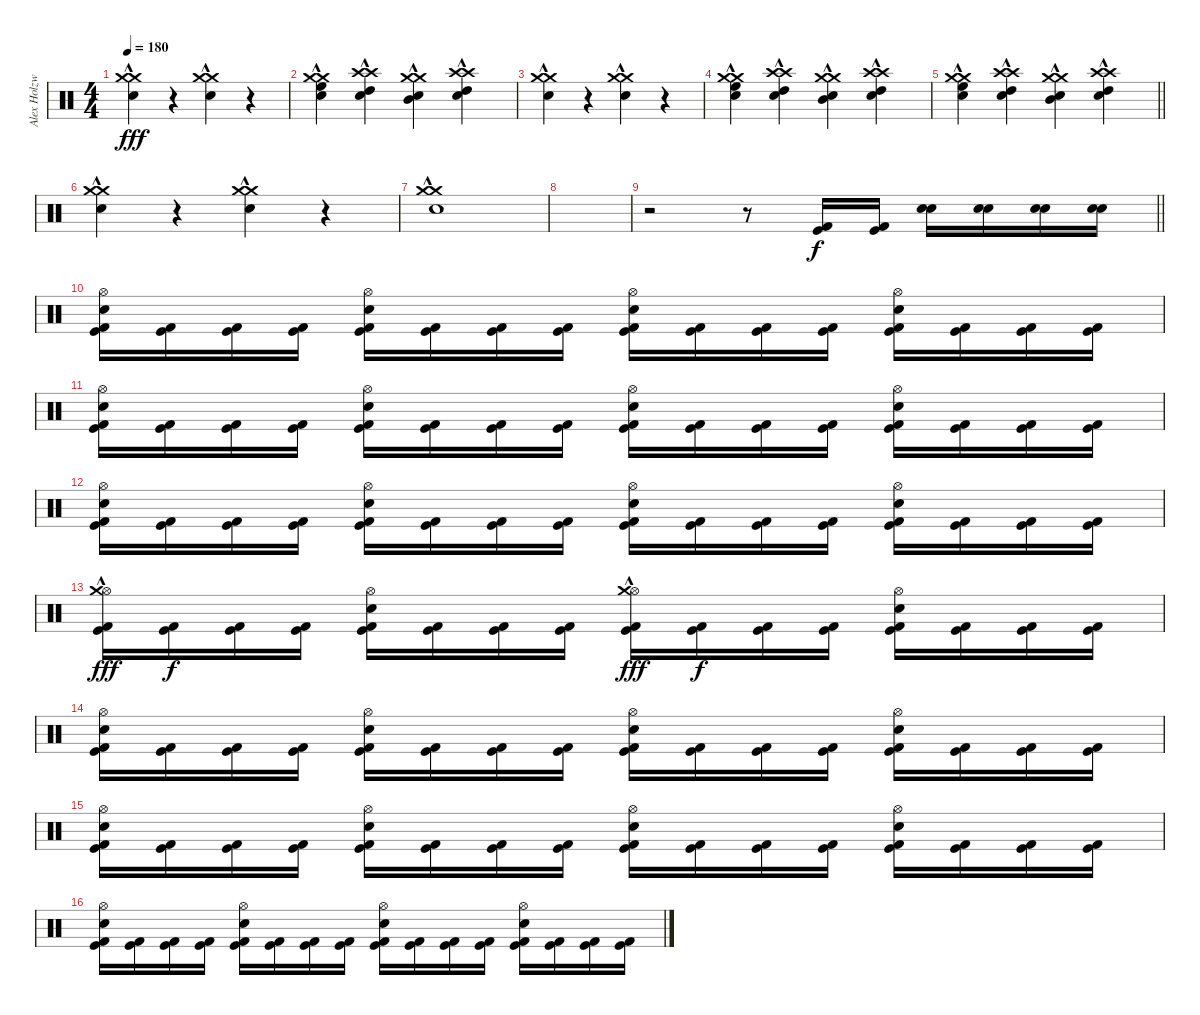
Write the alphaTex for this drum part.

\track ("Alex Holzwarth" "Alex Holzw") {instrument percussion}
\staff {score}
\articulation defaults
\ts (4 4)
\tempo 180
\clef neutral
\ks c
("Crash medium (hit)"{hac} "Snare (hit) 2" "Crash medium (hit)"{hac}).4{dy fff volume 16} r.4{volume 0} ("Crash medium (hit)"{hac} "Snare (hit) 2" "Crash medium (hit)"{hac}).4{volume 16} r.4{volume 0} |
("High Floor Tom (hit)"{hac} "Crash medium (hit)"{hac} "Snare (hit) 2" "Crash medium (hit)"{hac}).4{volume 16} ("High Tom (hit)"{hac} "Crash high (hit)"{hac} "Snare (hit) 2" "Crash high (hit)"{hac}).4{volume 16} ("Mid Tom (hit)"{hac} "Crash medium (hit)"{hac} "Snare (hit) 2" "Crash medium (hit)"{hac}).4{volume 16} ("High Tom (hit)"{hac} "Crash high (hit)"{hac} "Snare (hit) 2" "Crash high (hit)"{hac}).4{volume 16} |
("Crash medium (hit)"{hac} "Snare (hit) 2" "Crash medium (hit)"{hac}).4{volume 16} r.4{volume 0} ("Crash medium (hit)"{hac} "Snare (hit) 2" "Crash medium (hit)"{hac}).4{volume 16} r.4{volume 0} |
("High Floor Tom (hit)"{hac} "Crash medium (hit)"{hac} "Snare (hit) 2" "Crash medium (hit)"{hac}).4{volume 16} ("High Tom (hit)"{hac} "Crash high (hit)"{hac} "Snare (hit) 2" "Crash high (hit)"{hac}).4{volume 16} ("Mid Tom (hit)"{hac} "Crash medium (hit)"{hac} "Snare (hit) 2" "Crash medium (hit)"{hac}).4{volume 16} ("High Tom (hit)"{hac} "Crash high (hit)"{hac} "Snare (hit) 2" "Crash high (hit)"{hac}).4{volume 16} |
\barLineRight lightlight
("High Floor Tom (hit)"{hac} "Crash medium (hit)"{hac} "Snare (hit) 2" "Crash medium (hit)"{hac}).4{volume 16} ("High Tom (hit)"{hac} "Crash high (hit)"{hac} "Snare (hit) 2" "Crash high (hit)"{hac}).4{volume 16} ("Mid Tom (hit)"{hac} "Crash medium (hit)"{hac} "Snare (hit) 2" "Crash medium (hit)"{hac}).4{volume 16} ("High Tom (hit)"{hac} "Crash high (hit)"{hac} "Snare (hit) 2" "Crash high (hit)"{hac}).4{volume 16} |
\section ("" "")
("Crash medium (hit)"{hac} "Snare (hit) 2" "Crash medium (hit)"{hac}).4{volume 16} r.4{volume 0} ("Crash medium (hit)"{hac} "Snare (hit) 2" "Crash medium (hit)"{hac}).4{volume 16} r.4{volume 0} |
("Crash medium (hit)"{hac} "Snare (hit) 2" "Crash medium (hit)"{hac}).1{volume 16} |
|
\barLineRight lightlight
r.2 r.8 ("Kick (hit) 2" "Kick (hit)").16{dy f} ("Kick (hit) 2" "Kick (hit)").16 ("Snare (hit) 2" "Electric Snare (hit)").16 ("Snare (hit) 2" "Electric Snare (hit)").16 ("Snare (hit) 2" "Electric Snare (hit)").16 ("Snare (hit) 2" "Electric Snare (hit)").16 |
("Kick (hit) 2" "Kick (hit)" "Snare (hit) 2" "Hi-Hat (open)").16 ("Kick (hit) 2" "Kick (hit)").16 ("Kick (hit) 2" "Kick (hit)").16 ("Kick (hit) 2" "Kick (hit)").16 ("Kick (hit) 2" "Kick (hit)" "Hi-Hat (open)" "Snare (hit) 2").16 ("Kick (hit) 2" "Kick (hit)").16 ("Kick (hit) 2" "Kick (hit)").16 ("Kick (hit) 2" "Kick (hit)").16 ("Kick (hit) 2" "Kick (hit)" "Hi-Hat (open)" "Snare (hit) 2").16 ("Kick (hit) 2" "Kick (hit)").16 ("Kick (hit) 2" "Kick (hit)").16 ("Kick (hit) 2" "Kick (hit)").16 ("Kick (hit) 2" "Kick (hit)" "Hi-Hat (open)" "Snare (hit) 2").16 ("Kick (hit) 2" "Kick (hit)").16 ("Kick (hit) 2" "Kick (hit)").16 ("Kick (hit) 2" "Kick (hit)").16 |
("Kick (hit) 2" "Kick (hit)" "Snare (hit) 2" "Hi-Hat (open)").16 ("Kick (hit) 2" "Kick (hit)").16 ("Kick (hit) 2" "Kick (hit)").16 ("Kick (hit) 2" "Kick (hit)").16 ("Kick (hit) 2" "Kick (hit)" "Hi-Hat (open)" "Snare (hit) 2").16 ("Kick (hit) 2" "Kick (hit)").16 ("Kick (hit) 2" "Kick (hit)").16 ("Kick (hit) 2" "Kick (hit)").16 ("Kick (hit) 2" "Kick (hit)" "Hi-Hat (open)" "Snare (hit) 2").16 ("Kick (hit) 2" "Kick (hit)").16 ("Kick (hit) 2" "Kick (hit)").16 ("Kick (hit) 2" "Kick (hit)").16 ("Kick (hit) 2" "Kick (hit)" "Hi-Hat (open)" "Snare (hit) 2").16 ("Kick (hit) 2" "Kick (hit)").16 ("Kick (hit) 2" "Kick (hit)").16 ("Kick (hit) 2" "Kick (hit)").16 |
("Kick (hit) 2" "Kick (hit)" "Snare (hit) 2" "Hi-Hat (open)").16 ("Kick (hit) 2" "Kick (hit)").16 ("Kick (hit) 2" "Kick (hit)").16 ("Kick (hit) 2" "Kick (hit)").16 ("Kick (hit) 2" "Kick (hit)" "Hi-Hat (open)" "Snare (hit) 2").16 ("Kick (hit) 2" "Kick (hit)").16 ("Kick (hit) 2" "Kick (hit)").16 ("Kick (hit) 2" "Kick (hit)").16 ("Kick (hit) 2" "Kick (hit)" "Hi-Hat (open)" "Snare (hit) 2").16 ("Kick (hit) 2" "Kick (hit)").16 ("Kick (hit) 2" "Kick (hit)").16 ("Kick (hit) 2" "Kick (hit)").16 ("Kick (hit) 2" "Kick (hit)" "Hi-Hat (open)" "Snare (hit) 2").16 ("Kick (hit) 2" "Kick (hit)").16 ("Kick (hit) 2" "Kick (hit)").16 ("Kick (hit) 2" "Kick (hit)").16 |
("Kick (hit) 2" "Kick (hit)" "Hi-Hat (open)" "Crash medium (hit)"{hac}).16{dy fff} ("Kick (hit) 2" "Kick (hit)").16{dy f} ("Kick (hit) 2" "Kick (hit)").16 ("Kick (hit) 2" "Kick (hit)").16 ("Kick (hit) 2" "Kick (hit)" "Hi-Hat (open)" "Snare (hit) 2").16 ("Kick (hit) 2" "Kick (hit)").16 ("Kick (hit) 2" "Kick (hit)").16 ("Kick (hit) 2" "Kick (hit)").16 ("Kick (hit) 2" "Kick (hit)" "Hi-Hat (open)" "Crash medium (hit)"{hac}).16{dy fff} ("Kick (hit) 2" "Kick (hit)").16{dy f} ("Kick (hit) 2" "Kick (hit)").16 ("Kick (hit) 2" "Kick (hit)").16 ("Kick (hit) 2" "Kick (hit)" "Hi-Hat (open)" "Snare (hit) 2").16 ("Kick (hit) 2" "Kick (hit)").16 ("Kick (hit) 2" "Kick (hit)").16 ("Kick (hit) 2" "Kick (hit)").16 |
("Kick (hit) 2" "Kick (hit)" "Snare (hit) 2" "Hi-Hat (open)").16 ("Kick (hit) 2" "Kick (hit)").16 ("Kick (hit) 2" "Kick (hit)").16 ("Kick (hit) 2" "Kick (hit)").16 ("Kick (hit) 2" "Kick (hit)" "Hi-Hat (open)" "Snare (hit) 2").16 ("Kick (hit) 2" "Kick (hit)").16 ("Kick (hit) 2" "Kick (hit)").16 ("Kick (hit) 2" "Kick (hit)").16 ("Kick (hit) 2" "Kick (hit)" "Hi-Hat (open)" "Snare (hit) 2").16 ("Kick (hit) 2" "Kick (hit)").16 ("Kick (hit) 2" "Kick (hit)").16 ("Kick (hit) 2" "Kick (hit)").16 ("Kick (hit) 2" "Kick (hit)" "Hi-Hat (open)" "Snare (hit) 2").16 ("Kick (hit) 2" "Kick (hit)").16 ("Kick (hit) 2" "Kick (hit)").16 ("Kick (hit) 2" "Kick (hit)").16 |
("Kick (hit) 2" "Kick (hit)" "Snare (hit) 2" "Hi-Hat (open)").16 ("Kick (hit) 2" "Kick (hit)").16 ("Kick (hit) 2" "Kick (hit)").16 ("Kick (hit) 2" "Kick (hit)").16 ("Kick (hit) 2" "Kick (hit)" "Hi-Hat (open)" "Snare (hit) 2").16 ("Kick (hit) 2" "Kick (hit)").16 ("Kick (hit) 2" "Kick (hit)").16 ("Kick (hit) 2" "Kick (hit)").16 ("Kick (hit) 2" "Kick (hit)" "Hi-Hat (open)" "Snare (hit) 2").16 ("Kick (hit) 2" "Kick (hit)").16 ("Kick (hit) 2" "Kick (hit)").16 ("Kick (hit) 2" "Kick (hit)").16 ("Kick (hit) 2" "Kick (hit)" "Hi-Hat (open)" "Snare (hit) 2").16 ("Kick (hit) 2" "Kick (hit)").16 ("Kick (hit) 2" "Kick (hit)").16 ("Kick (hit) 2" "Kick (hit)").16 |
("Kick (hit) 2" "Kick (hit)" "Snare (hit) 2" "Hi-Hat (open)").16 ("Kick (hit) 2" "Kick (hit)").16 ("Kick (hit) 2" "Kick (hit)").16 ("Kick (hit) 2" "Kick (hit)").16 ("Kick (hit) 2" "Kick (hit)" "Hi-Hat (open)" "Snare (hit) 2").16 ("Kick (hit) 2" "Kick (hit)").16 ("Kick (hit) 2" "Kick (hit)").16 ("Kick (hit) 2" "Kick (hit)").16 ("Kick (hit) 2" "Kick (hit)" "Hi-Hat (open)" "Snare (hit) 2").16 ("Kick (hit) 2" "Kick (hit)").16 ("Kick (hit) 2" "Kick (hit)").16 ("Kick (hit) 2" "Kick (hit)").16 ("Kick (hit) 2" "Kick (hit)" "Hi-Hat (open)" "Snare (hit) 2").16 ("Kick (hit) 2" "Kick (hit)").16 ("Kick (hit) 2" "Kick (hit)").16 ("Kick (hit) 2" "Kick (hit)").16
